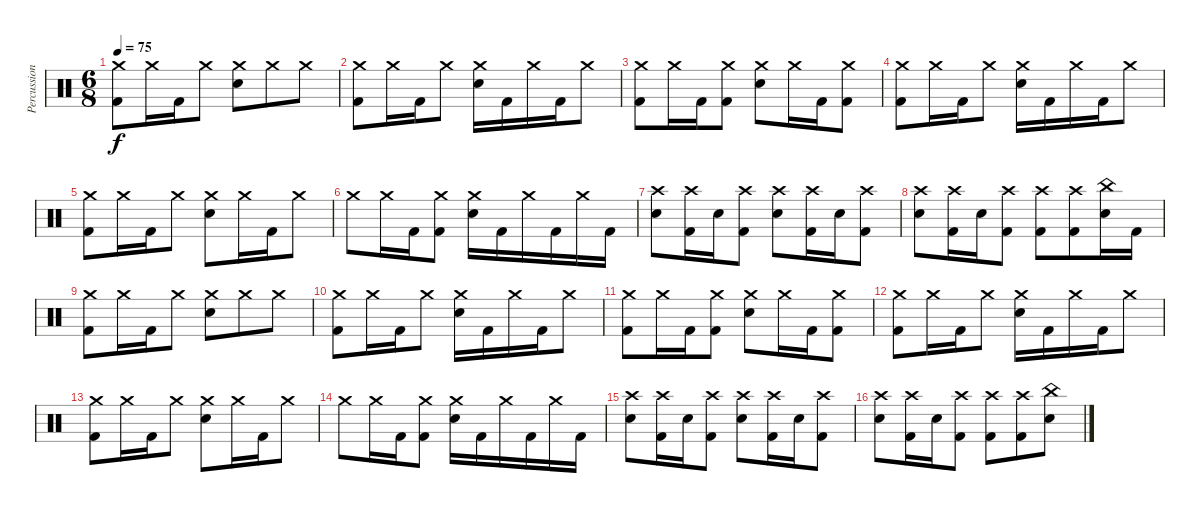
\track ("Percussions" "Percussion") {instrument percussion}
\staff {score}
\articulation defaults
\ts (6 8)
\tempo 75
\clef neutral
\ks c
("Crash medium (hit)" "Kick (hit) 2").8{dy f} "Crash medium (hit)".16 "Kick (hit) 2".16 "Crash medium (hit)".8 ("Crash medium (hit)" "Electric Snare (hit)").8 "Crash medium (hit)".8 "Crash medium (hit)".8 |
("Crash medium (hit)" "Kick (hit) 2").8 "Crash medium (hit)".16 "Kick (hit) 2".16 "Crash medium (hit)".8 ("Crash medium (hit)" "Electric Snare (hit)").16 "Kick (hit) 2".16 "Crash medium (hit)".16 "Kick (hit) 2".16 "Crash medium (hit)".8 |
("Crash medium (hit)" "Kick (hit) 2").8 "Crash medium (hit)".16 "Kick (hit) 2".16 ("Crash medium (hit)" "Kick (hit) 2").8 ("Crash medium (hit)" "Electric Snare (hit)").8 "Crash medium (hit)".16 "Kick (hit) 2".16 ("Crash medium (hit)" "Kick (hit) 2").8 |
("Crash medium (hit)" "Kick (hit) 2").8 "Crash medium (hit)".16 "Kick (hit) 2".16 "Crash medium (hit)".8 ("Crash medium (hit)" "Electric Snare (hit)").16 "Kick (hit) 2".16 "Crash medium (hit)".16 "Kick (hit) 2".16 "Crash medium (hit)".8 |
("Crash medium (hit)" "Kick (hit) 2").8 "Crash medium (hit)".16 "Kick (hit) 2".16 "Crash medium (hit)".8 ("Crash medium (hit)" "Electric Snare (hit)").8 "Crash medium (hit)".16 "Kick (hit) 2".16 "Crash medium (hit)".8 |
"Crash medium (hit)".8 "Crash medium (hit)".16 "Kick (hit) 2".16 ("Crash medium (hit)" "Kick (hit) 2").8 ("Crash medium (hit)" "Electric Snare (hit)").16 "Kick (hit) 2".16 "Crash medium (hit)".16 "Kick (hit) 2".16 "Crash medium (hit)".16 "Kick (hit) 2".16 |
("Crash high (hit)" "Electric Snare (hit)").8 ("Crash high (hit)" "Kick (hit) 2").16 "Electric Snare (hit)".16 ("Crash high (hit)" "Kick (hit) 2").8 ("Crash high (hit)" "Electric Snare (hit)").8 ("Crash high (hit)" "Kick (hit) 2").16 "Electric Snare (hit)".16 ("Crash high (hit)" "Kick (hit) 2").8 |
("Crash high (hit)" "Electric Snare (hit)").8 ("Crash high (hit)" "Kick (hit) 2").16 "Electric Snare (hit)".16 ("Crash high (hit)" "Kick (hit) 2").8 ("Crash high (hit)" "Kick (hit) 2").8 ("Crash high (hit)" "Kick (hit) 2").8 ("China (hit)" "Electric Snare (hit)").16 "Kick (hit) 2".16 |
("Crash medium (hit)" "Kick (hit) 2").8 "Crash medium (hit)".16 "Kick (hit) 2".16 "Crash medium (hit)".8 ("Crash medium (hit)" "Electric Snare (hit)").8 "Crash medium (hit)".8 "Crash medium (hit)".8 |
("Crash medium (hit)" "Kick (hit) 2").8 "Crash medium (hit)".16 "Kick (hit) 2".16 "Crash medium (hit)".8 ("Crash medium (hit)" "Electric Snare (hit)").16 "Kick (hit) 2".16 "Crash medium (hit)".16 "Kick (hit) 2".16 "Crash medium (hit)".8 |
("Crash medium (hit)" "Kick (hit) 2").8 "Crash medium (hit)".16 "Kick (hit) 2".16 ("Crash medium (hit)" "Kick (hit) 2").8 ("Crash medium (hit)" "Electric Snare (hit)").8 "Crash medium (hit)".16 "Kick (hit) 2".16 ("Crash medium (hit)" "Kick (hit) 2").8 |
("Crash medium (hit)" "Kick (hit) 2").8 "Crash medium (hit)".16 "Kick (hit) 2".16 "Crash medium (hit)".8 ("Crash medium (hit)" "Electric Snare (hit)").16 "Kick (hit) 2".16 "Crash medium (hit)".16 "Kick (hit) 2".16 "Crash medium (hit)".8 |
("Crash medium (hit)" "Kick (hit) 2").8 "Crash medium (hit)".16 "Kick (hit) 2".16 "Crash medium (hit)".8 ("Crash medium (hit)" "Electric Snare (hit)").8 "Crash medium (hit)".16 "Kick (hit) 2".16 "Crash medium (hit)".8 |
"Crash medium (hit)".8 "Crash medium (hit)".16 "Kick (hit) 2".16 ("Crash medium (hit)" "Kick (hit) 2").8 ("Crash medium (hit)" "Electric Snare (hit)").16 "Kick (hit) 2".16 "Crash medium (hit)".16 "Kick (hit) 2".16 "Crash medium (hit)".16 "Kick (hit) 2".16 |
("Crash high (hit)" "Electric Snare (hit)").8 ("Crash high (hit)" "Kick (hit) 2").16 "Electric Snare (hit)".16 ("Crash high (hit)" "Kick (hit) 2").8 ("Crash high (hit)" "Electric Snare (hit)").8 ("Crash high (hit)" "Kick (hit) 2").16 "Electric Snare (hit)".16 ("Crash high (hit)" "Kick (hit) 2").8 |
("Crash high (hit)" "Electric Snare (hit)").8 ("Crash high (hit)" "Kick (hit) 2").16 "Electric Snare (hit)".16 ("Crash high (hit)" "Kick (hit) 2").8 ("Crash high (hit)" "Kick (hit) 2").8 ("Crash high (hit)" "Kick (hit) 2").8 ("China (hit)" "Electric Snare (hit)").8
